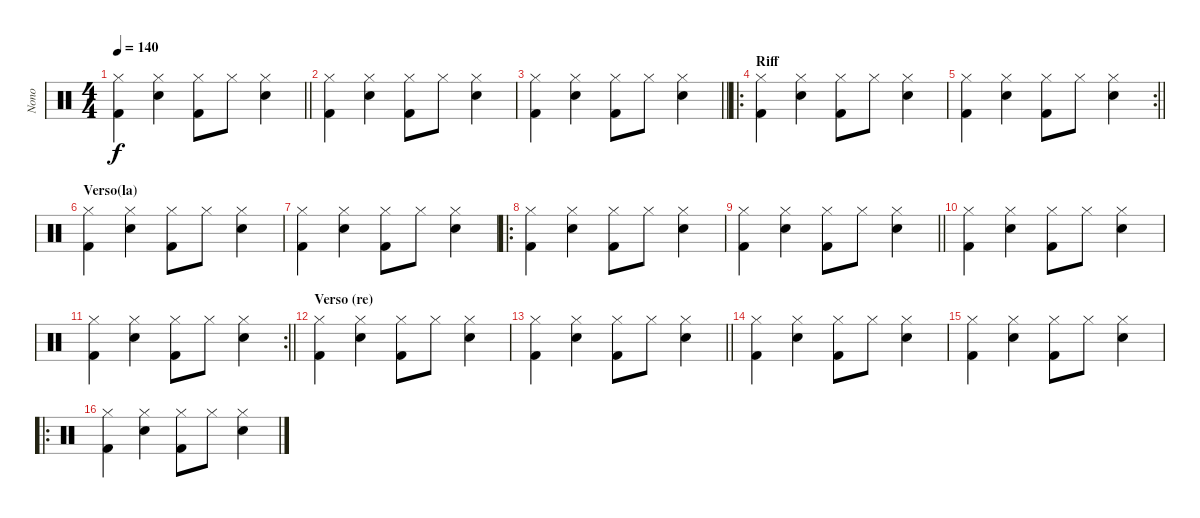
\track ("Nono" "Nono") {instrument percussion}
\staff {score}
\articulation defaults
\ts (4 4)
\tempo 140
\clef neutral
\barLineRight lightlight
\ks c
("Hi-Hat (closed)" "Kick (hit) 2").4{dy f} ("Hi-Hat (closed)" "Snare (hit) 2").4 ("Hi-Hat (closed)" "Kick (hit) 2").8 "Hi-Hat (closed)".8 ("Hi-Hat (closed)" "Snare (hit) 2").4 |
("Hi-Hat (closed)" "Kick (hit) 2").4 ("Hi-Hat (closed)" "Snare (hit) 2").4 ("Hi-Hat (closed)" "Kick (hit) 2").8 "Hi-Hat (closed)".8 ("Hi-Hat (closed)" "Snare (hit) 2").4 |
\barLineRight lightlight
("Hi-Hat (closed)" "Kick (hit) 2").4 ("Hi-Hat (closed)" "Snare (hit) 2").4 ("Hi-Hat (closed)" "Kick (hit) 2").8 "Hi-Hat (closed)".8 ("Hi-Hat (closed)" "Snare (hit) 2").4 |
\ro
\section ("" "Riff")
("Hi-Hat (closed)" "Kick (hit) 2").4 ("Hi-Hat (closed)" "Snare (hit) 2").4 ("Hi-Hat (closed)" "Kick (hit) 2").8 "Hi-Hat (closed)".8 ("Hi-Hat (closed)" "Snare (hit) 2").4 |
\rc 2
\barLineRight lightlight
("Hi-Hat (closed)" "Kick (hit) 2").4 ("Hi-Hat (closed)" "Snare (hit) 2").4 ("Hi-Hat (closed)" "Kick (hit) 2").8 "Hi-Hat (closed)".8 ("Hi-Hat (closed)" "Snare (hit) 2").4 |
\section ("" "Verso(la)")
("Hi-Hat (closed)" "Kick (hit) 2").4 ("Hi-Hat (closed)" "Snare (hit) 2").4 ("Hi-Hat (closed)" "Kick (hit) 2").8 "Hi-Hat (closed)".8 ("Hi-Hat (closed)" "Snare (hit) 2").4 |
("Hi-Hat (closed)" "Kick (hit) 2").4 ("Hi-Hat (closed)" "Snare (hit) 2").4 ("Hi-Hat (closed)" "Kick (hit) 2").8 "Hi-Hat (closed)".8 ("Hi-Hat (closed)" "Snare (hit) 2").4 |
\ro
("Hi-Hat (closed)" "Kick (hit) 2").4 ("Hi-Hat (closed)" "Snare (hit) 2").4 ("Hi-Hat (closed)" "Kick (hit) 2").8 "Hi-Hat (closed)".8 ("Hi-Hat (closed)" "Snare (hit) 2").4 |
\barLineRight lightlight
("Hi-Hat (closed)" "Kick (hit) 2").4 ("Hi-Hat (closed)" "Snare (hit) 2").4 ("Hi-Hat (closed)" "Kick (hit) 2").8 "Hi-Hat (closed)".8 ("Hi-Hat (closed)" "Snare (hit) 2").4 |
("Hi-Hat (closed)" "Kick (hit) 2").4 ("Hi-Hat (closed)" "Snare (hit) 2").4 ("Hi-Hat (closed)" "Kick (hit) 2").8 "Hi-Hat (closed)".8 ("Hi-Hat (closed)" "Snare (hit) 2").4 |
\rc 2
\barLineRight lightlight
("Hi-Hat (closed)" "Kick (hit) 2").4 ("Hi-Hat (closed)" "Snare (hit) 2").4 ("Hi-Hat (closed)" "Kick (hit) 2").8 "Hi-Hat (closed)".8 ("Hi-Hat (closed)" "Snare (hit) 2").4 |
\section ("" "Verso (re)")
("Hi-Hat (closed)" "Kick (hit) 2").4 ("Hi-Hat (closed)" "Snare (hit) 2").4 ("Hi-Hat (closed)" "Kick (hit) 2").8 "Hi-Hat (closed)".8 ("Hi-Hat (closed)" "Snare (hit) 2").4 |
\barLineRight lightlight
("Hi-Hat (closed)" "Kick (hit) 2").4 ("Hi-Hat (closed)" "Snare (hit) 2").4 ("Hi-Hat (closed)" "Kick (hit) 2").8 "Hi-Hat (closed)".8 ("Hi-Hat (closed)" "Snare (hit) 2").4 |
("Hi-Hat (closed)" "Kick (hit) 2").4 ("Hi-Hat (closed)" "Snare (hit) 2").4 ("Hi-Hat (closed)" "Kick (hit) 2").8 "Hi-Hat (closed)".8 ("Hi-Hat (closed)" "Snare (hit) 2").4 |
("Hi-Hat (closed)" "Kick (hit) 2").4 ("Hi-Hat (closed)" "Snare (hit) 2").4 ("Hi-Hat (closed)" "Kick (hit) 2").8 "Hi-Hat (closed)".8 ("Hi-Hat (closed)" "Snare (hit) 2").4 |
\ro
("Hi-Hat (closed)" "Kick (hit) 2").4 ("Hi-Hat (closed)" "Snare (hit) 2").4 ("Hi-Hat (closed)" "Kick (hit) 2").8 "Hi-Hat (closed)".8 ("Hi-Hat (closed)" "Snare (hit) 2").4
